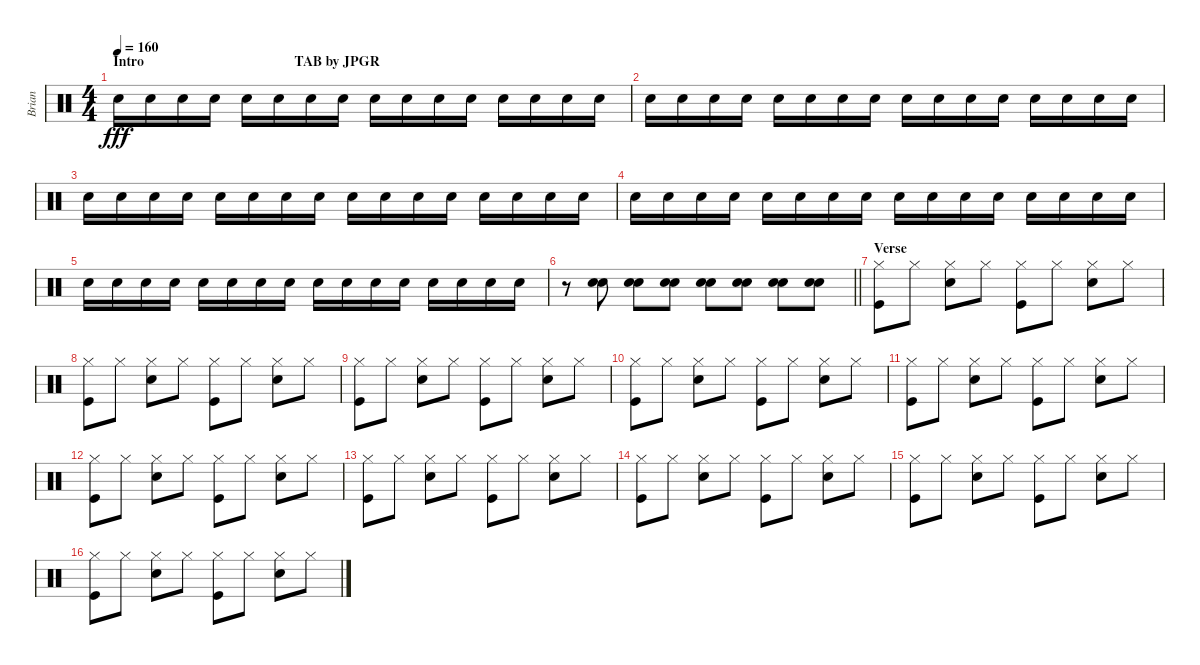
\track ("Brian" "Brian") {instrument percussion}
\staff {score}
\articulation defaults
\ts (4 4)
\section ("" "Intro                                           TAB by JPGR")
\tempo 160
\clef neutral
\ks c "Snare (hit) 2".16{dy fff} "Snare (hit) 2".16 "Snare (hit) 2".16 "Snare (hit) 2".16 "Snare (hit) 2".16 "Snare (hit) 2".16 "Snare (hit) 2".16 "Snare (hit) 2".16 "Snare (hit) 2".16 "Snare (hit) 2".16 "Snare (hit) 2".16 "Snare (hit) 2".16 "Snare (hit) 2".16 "Snare (hit) 2".16 "Snare (hit) 2".16 "Snare (hit) 2".16
|
"Snare (hit) 2".16 "Snare (hit) 2".16 "Snare (hit) 2".16 "Snare (hit) 2".16 "Snare (hit) 2".16 "Snare (hit) 2".16 "Snare (hit) 2".16 "Snare (hit) 2".16 "Snare (hit) 2".16 "Snare (hit) 2".16 "Snare (hit) 2".16 "Snare (hit) 2".16 "Snare (hit) 2".16 "Snare (hit) 2".16 "Snare (hit) 2".16 "Snare (hit) 2".16 |
"Snare (hit) 2".16 "Snare (hit) 2".16 "Snare (hit) 2".16 "Snare (hit) 2".16 "Snare (hit) 2".16 "Snare (hit) 2".16 "Snare (hit) 2".16 "Snare (hit) 2".16 "Snare (hit) 2".16 "Snare (hit) 2".16 "Snare (hit) 2".16 "Snare (hit) 2".16 "Snare (hit) 2".16 "Snare (hit) 2".16 "Snare (hit) 2".16 "Snare (hit) 2".16 |
"Snare (hit) 2".16 "Snare (hit) 2".16 "Snare (hit) 2".16 "Snare (hit) 2".16 "Snare (hit) 2".16 "Snare (hit) 2".16 "Snare (hit) 2".16 "Snare (hit) 2".16 "Snare (hit) 2".16 "Snare (hit) 2".16 "Snare (hit) 2".16 "Snare (hit) 2".16 "Snare (hit) 2".16 "Snare (hit) 2".16 "Snare (hit) 2".16 "Snare (hit) 2".16 |
"Snare (hit) 2".16 "Snare (hit) 2".16 "Snare (hit) 2".16 "Snare (hit) 2".16 "Snare (hit) 2".16 "Snare (hit) 2".16 "Snare (hit) 2".16 "Snare (hit) 2".16 "Snare (hit) 2".16 "Snare (hit) 2".16 "Snare (hit) 2".16 "Snare (hit) 2".16 "Snare (hit) 2".16 "Snare (hit) 2".16 "Snare (hit) 2".16 "Snare (hit) 2".16 |
\barLineRight lightlight
r.8 ("Electric Snare (hit)" "Snare (hit) 2").8 ("Electric Snare (hit)" "Snare (hit) 2").8 ("Electric Snare (hit)" "Snare (hit) 2").8 ("Electric Snare (hit)" "Snare (hit) 2").8 ("Electric Snare (hit)" "Snare (hit) 2").8 ("Electric Snare (hit)" "Snare (hit) 2").8 ("Electric Snare (hit)" "Snare (hit) 2").8 |
\section ("" "Verse")
("Hi-Hat (closed)" "Kick (hit)").8 "Hi-Hat (closed)".8 ("Hi-Hat (closed)" "Electric Snare (hit)").8 "Hi-Hat (closed)".8 ("Hi-Hat (closed)" "Kick (hit)").8 "Hi-Hat (closed)".8 ("Hi-Hat (closed)" "Electric Snare (hit)").8 "Hi-Hat (closed)".8 |
("Hi-Hat (closed)" "Kick (hit)").8 "Hi-Hat (closed)".8 ("Hi-Hat (closed)" "Electric Snare (hit)").8 "Hi-Hat (closed)".8 ("Hi-Hat (closed)" "Kick (hit)").8 "Hi-Hat (closed)".8 ("Hi-Hat (closed)" "Electric Snare (hit)").8 "Hi-Hat (closed)".8 |
("Hi-Hat (closed)" "Kick (hit)").8 "Hi-Hat (closed)".8 ("Hi-Hat (closed)" "Electric Snare (hit)").8 "Hi-Hat (closed)".8 ("Hi-Hat (closed)" "Kick (hit)").8 "Hi-Hat (closed)".8 ("Hi-Hat (closed)" "Electric Snare (hit)").8 "Hi-Hat (closed)".8 |
("Hi-Hat (closed)" "Kick (hit)").8 "Hi-Hat (closed)".8 ("Hi-Hat (closed)" "Electric Snare (hit)").8 "Hi-Hat (closed)".8 ("Hi-Hat (closed)" "Kick (hit)").8 "Hi-Hat (closed)".8 ("Hi-Hat (closed)" "Electric Snare (hit)").8 "Hi-Hat (closed)".8 |
("Hi-Hat (closed)" "Kick (hit)").8 "Hi-Hat (closed)".8 ("Hi-Hat (closed)" "Electric Snare (hit)").8 "Hi-Hat (closed)".8 ("Hi-Hat (closed)" "Kick (hit)").8 "Hi-Hat (closed)".8 ("Hi-Hat (closed)" "Electric Snare (hit)").8 "Hi-Hat (closed)".8 |
("Hi-Hat (closed)" "Kick (hit)").8 "Hi-Hat (closed)".8 ("Hi-Hat (closed)" "Electric Snare (hit)").8 "Hi-Hat (closed)".8 ("Hi-Hat (closed)" "Kick (hit)").8 "Hi-Hat (closed)".8 ("Hi-Hat (closed)" "Electric Snare (hit)").8 "Hi-Hat (closed)".8 |
("Hi-Hat (closed)" "Kick (hit)").8 "Hi-Hat (closed)".8 ("Hi-Hat (closed)" "Electric Snare (hit)").8 "Hi-Hat (closed)".8 ("Hi-Hat (closed)" "Kick (hit)").8 "Hi-Hat (closed)".8 ("Hi-Hat (closed)" "Electric Snare (hit)").8 "Hi-Hat (closed)".8 |
("Hi-Hat (closed)" "Kick (hit)").8 "Hi-Hat (closed)".8 ("Hi-Hat (closed)" "Electric Snare (hit)").8 "Hi-Hat (closed)".8 ("Hi-Hat (closed)" "Kick (hit)").8 "Hi-Hat (closed)".8 ("Hi-Hat (closed)" "Electric Snare (hit)").8 "Hi-Hat (closed)".8 |
("Hi-Hat (closed)" "Kick (hit)").8 "Hi-Hat (closed)".8 ("Hi-Hat (closed)" "Electric Snare (hit)").8 "Hi-Hat (closed)".8 ("Hi-Hat (closed)" "Kick (hit)").8 "Hi-Hat (closed)".8 ("Hi-Hat (closed)" "Electric Snare (hit)").8 "Hi-Hat (closed)".8 |
("Hi-Hat (closed)" "Kick (hit)").8 "Hi-Hat (closed)".8 ("Hi-Hat (closed)" "Electric Snare (hit)").8 "Hi-Hat (closed)".8 ("Hi-Hat (closed)" "Kick (hit)").8 "Hi-Hat (closed)".8 ("Hi-Hat (closed)" "Electric Snare (hit)").8 "Hi-Hat (closed)".8
